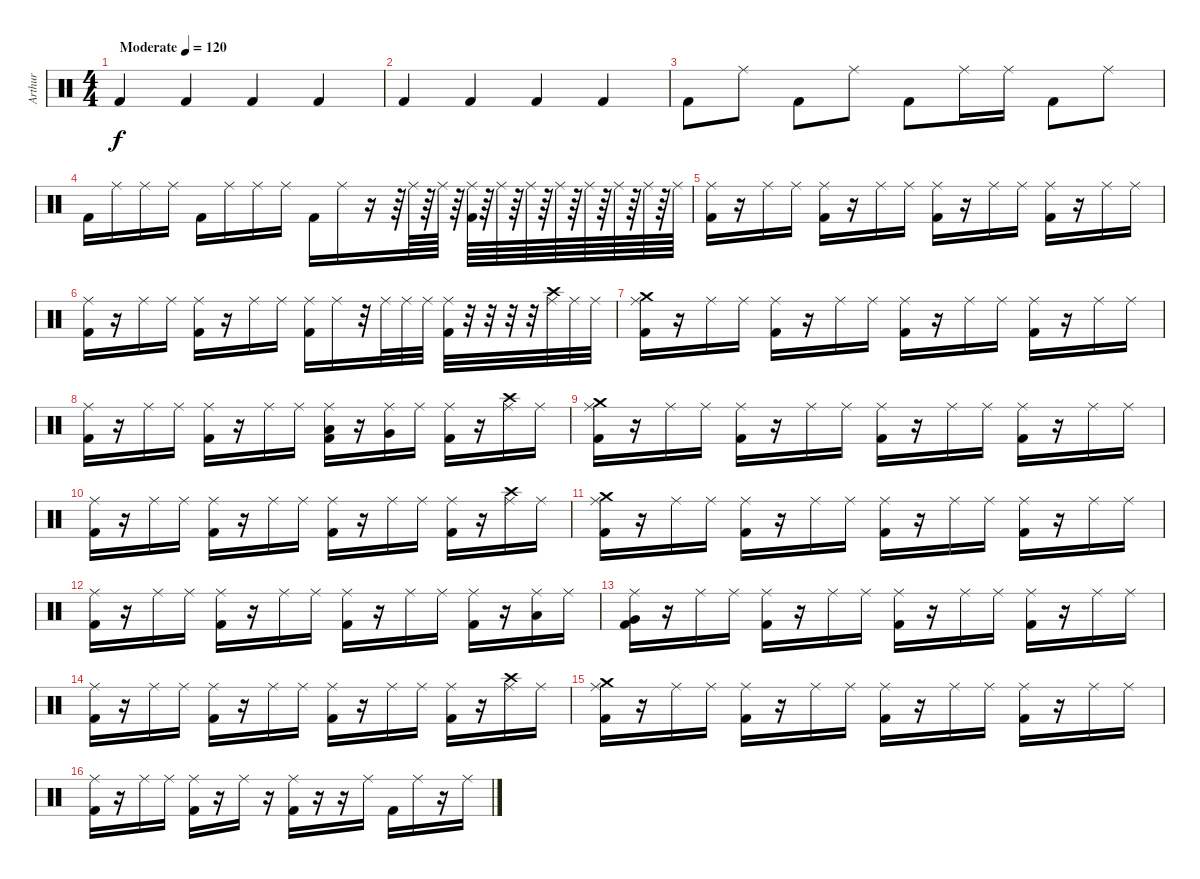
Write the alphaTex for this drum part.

\track ("Arthur" "Arthur") {instrument percussion}
\staff {score}
\articulation defaults
\ts (4 4)
\tempo (120 "Moderate")
\clef neutral
\ks c "Kick (hit) 2".4{dy f} "Kick (hit) 2".4 "Kick (hit) 2".4 "Kick (hit) 2".4
|
"Kick (hit) 2".4 "Kick (hit) 2".4 "Kick (hit) 2".4 "Kick (hit) 2".4 |
"Kick (hit) 2".8 "Ride (middle)".8 "Kick (hit) 2".8 "Ride (middle)".8 "Kick (hit) 2".8 "Ride (middle)".16 "Ride (middle)".16 "Kick (hit) 2".8 "Ride (middle)".8 |
"Kick (hit) 2".16 "Ride (middle)".16 "Ride (middle)".16 "Ride (middle)".16 "Kick (hit) 2".16 "Ride (middle)".16 "Ride (middle)".16 "Ride (middle)".16 "Kick (hit) 2".16 "Ride (middle)".16 r.16 r.64 "Ride (middle)".64 r.64 "Ride (middle)".64 r.64 ("Kick (hit) 2" "Ride (middle)").64 r.64 "Ride (middle)".64 r.64 "Ride (middle)".64 r.64 "Ride (middle)".64 r.64 "Ride (middle)".64 r.64 "Ride (middle)".64 r.64 "Ride (middle)".64 r.64 "Ride (middle)".64 |
("Kick (hit) 2" "Ride (middle)").16 r.16 "Ride (middle)".16 "Ride (middle)".16 ("Kick (hit) 2" "Ride (middle)").16 r.16 "Ride (middle)".16 "Ride (middle)".16 ("Kick (hit) 2" "Ride (middle)").16 r.16 "Ride (middle)".16 "Ride (middle)".16 ("Kick (hit) 2" "Ride (middle)").16 r.16 "Ride (middle)".16 "Ride (middle)".16 |
("Kick (hit) 2" "Ride (middle)").16 r.16 "Ride (middle)".16 "Ride (middle)".16 ("Kick (hit) 2" "Ride (middle)").16 r.16 "Ride (middle)".16 "Ride (middle)".16 ("Kick (hit) 2" "Ride (middle)").16 "Ride (middle)".16 r.32 "Ride (middle)".32 "Ride (middle)".32 "Ride (middle)".32 ("Kick (hit) 2" "Ride (middle)").32 r.32 r.32 r.32 r.32 ("Ride (middle)" "Crash high (hit)").32 "Ride (middle)".32 "Ride (middle)".32 |
("Kick (hit) 2" "Ride (middle)" "Crash medium (hit)").16 r.16 "Ride (middle)".16 "Ride (middle)".16 ("Kick (hit) 2" "Ride (middle)").16 r.16 "Ride (middle)".16 "Ride (middle)".16 ("Kick (hit) 2" "Ride (middle)").16 r.16 "Ride (middle)".16 "Ride (middle)".16 ("Kick (hit) 2" "Ride (middle)").16 r.16 "Ride (middle)".16 "Ride (middle)".16 |
("Kick (hit) 2" "Ride (middle)").16 r.16 "Ride (middle)".16 "Ride (middle)".16 ("Kick (hit) 2" "Ride (middle)").16 r.16 "Ride (middle)".16 "Ride (middle)".16 ("Kick (hit) 2" "Ride (middle)" "Low Tom (hit)").16 r.16 ("Ride (middle)" "Very Low Tom (hit)").16 "Ride (middle)".16 ("Kick (hit) 2" "Ride (middle)").16 r.16 ("Ride (middle)" "Crash high (hit)").16 "Ride (middle)".16 |
("Kick (hit) 2" "Ride (middle)" "Crash medium (hit)").16 r.16 "Ride (middle)".16 "Ride (middle)".16 ("Kick (hit) 2" "Ride (middle)").16 r.16 "Ride (middle)".16 "Ride (middle)".16 ("Kick (hit) 2" "Ride (middle)").16 r.16 "Ride (middle)".16 "Ride (middle)".16 ("Kick (hit) 2" "Ride (middle)").16 r.16 "Ride (middle)".16 "Ride (middle)".16 |
("Kick (hit) 2" "Ride (middle)").16 r.16 "Ride (middle)".16 "Ride (middle)".16 ("Kick (hit) 2" "Ride (middle)").16 r.16 "Ride (middle)".16 "Ride (middle)".16 ("Kick (hit) 2" "Ride (middle)").16 r.16 "Ride (middle)".16 "Ride (middle)".16 ("Kick (hit) 2" "Ride (middle)").16 r.16 ("Ride (middle)" "Crash high (hit)").16 "Ride (middle)".16 |
("Kick (hit) 2" "Ride (middle)" "Crash medium (hit)").16 r.16 "Ride (middle)".16 "Ride (middle)".16 ("Kick (hit) 2" "Ride (middle)").16 r.16 "Ride (middle)".16 "Ride (middle)".16 ("Kick (hit) 2" "Ride (middle)").16 r.16 "Ride (middle)".16 "Ride (middle)".16 ("Kick (hit) 2" "Ride (middle)").16 r.16 "Ride (middle)".16 "Ride (middle)".16 |
("Kick (hit) 2" "Ride (middle)").16 r.16 "Ride (middle)".16 "Ride (middle)".16 ("Kick (hit) 2" "Ride (middle)").16 r.16 "Ride (middle)".16 "Ride (middle)".16 ("Kick (hit) 2" "Ride (middle)").16 r.16 "Ride (middle)".16 "Ride (middle)".16 ("Kick (hit) 2" "Ride (middle)").16 r.16 ("Ride (middle)" "Low Tom (hit)").16 "Ride (middle)".16 |
("Kick (hit) 2" "Ride (middle)" "Very Low Tom (hit)").16 r.16 "Ride (middle)".16 "Ride (middle)".16 ("Kick (hit) 2" "Ride (middle)").16 r.16 "Ride (middle)".16 "Ride (middle)".16 ("Kick (hit) 2" "Ride (middle)").16 r.16 "Ride (middle)".16 "Ride (middle)".16 ("Kick (hit) 2" "Ride (middle)").16 r.16 "Ride (middle)".16 "Ride (middle)".16 |
("Kick (hit) 2" "Ride (middle)").16 r.16 "Ride (middle)".16 "Ride (middle)".16 ("Kick (hit) 2" "Ride (middle)").16 r.16 "Ride (middle)".16 "Ride (middle)".16 ("Kick (hit) 2" "Ride (middle)").16 r.16 "Ride (middle)".16 "Ride (middle)".16 ("Kick (hit) 2" "Ride (middle)").16 r.16 ("Ride (middle)" "Crash high (hit)").16 "Ride (middle)".16 |
("Kick (hit) 2" "Ride (middle)" "Crash medium (hit)").16 r.16 "Ride (middle)".16 "Ride (middle)".16 ("Kick (hit) 2" "Ride (middle)").16 r.16 "Ride (middle)".16 "Ride (middle)".16 ("Kick (hit) 2" "Ride (middle)").16 r.16 "Ride (middle)".16 "Ride (middle)".16 ("Kick (hit) 2" "Ride (middle)").16 r.16 "Ride (middle)".16 "Ride (middle)".16 |
("Kick (hit) 2" "Ride (middle)").16 r.16 "Ride (middle)".16 "Ride (middle)".16 ("Kick (hit) 2" "Ride (middle)").16 r.16 "Ride (middle)".16 r.16 ("Kick (hit) 2" "Ride (middle)").16 r.16 r.16 "Ride (middle)".16 "Kick (hit) 2".16 "Ride (middle)".16 r.16 "Ride (middle)".16
